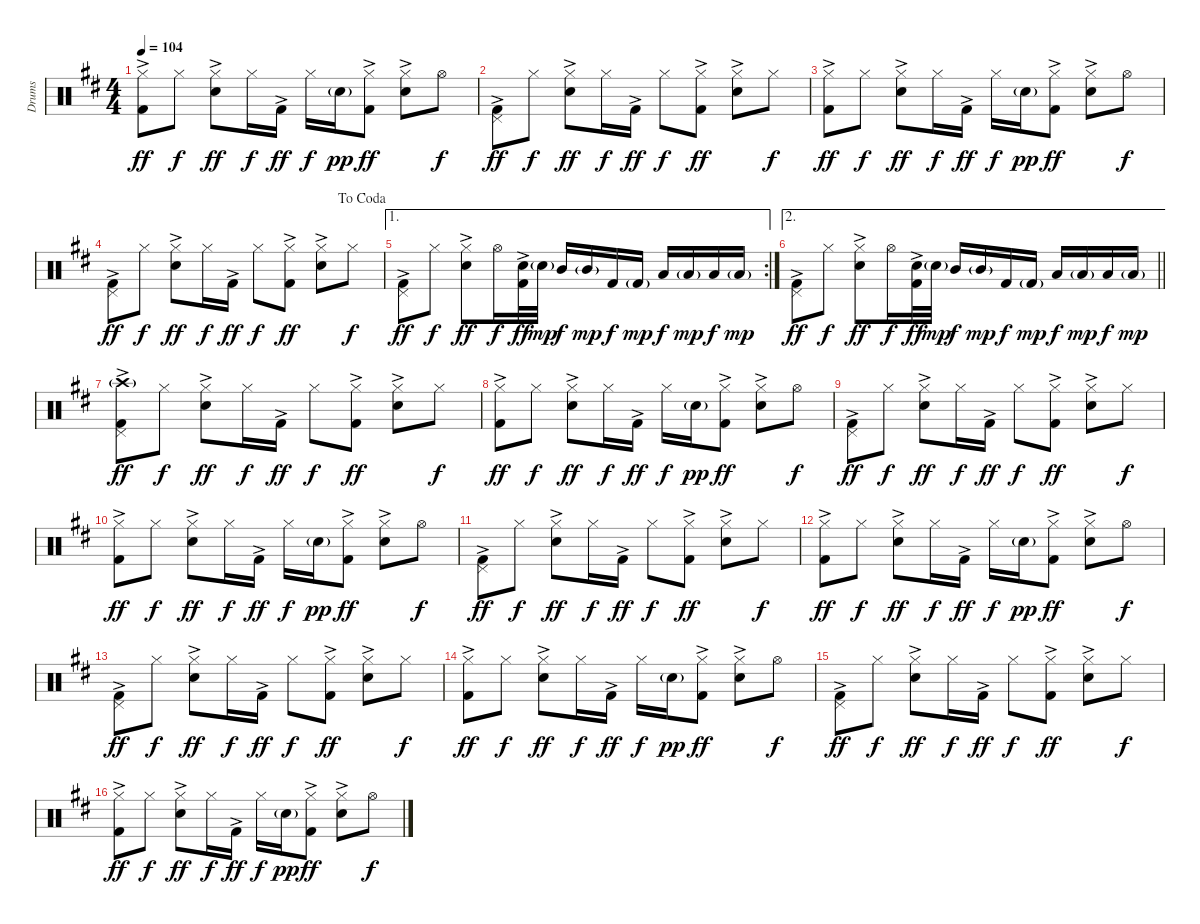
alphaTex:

\track ("Drums" "Drums") {instrument percussion}
\staff {score}
\articulation defaults
\ts (4 4)
\tempo 104
\clef neutral
\ks d
("Hi-Hat (closed)" "Kick (hit) 2"{ac}).8{dy ff} "Hi-Hat (closed)".8{dy f} ("Hi-Hat (closed)" "Snare (hit) 2"{ac}).8{dy ff} "Hi-Hat (closed)".16{dy f} "Kick (hit) 2"{ac}.16{dy ff} "Hi-Hat (closed)".16{dy f} "Snare (hit) 2"{g}.16{dy pp} ("Hi-Hat (closed)" "Kick (hit) 2"{ac}).8{dy ff} ("Hi-Hat (closed)" "Snare (hit) 2"{ac}).8 "Hi-Hat (open)".8{dy f} |
("Pedal Hi-Hat (hit)" "Kick (hit) 2"{ac}).8{dy ff} "Hi-Hat (closed)".8{dy f} ("Hi-Hat (closed)" "Snare (hit) 2"{ac}).8{dy ff} "Hi-Hat (closed)".16{dy f} "Kick (hit) 2"{ac}.16{dy ff} "Hi-Hat (closed)".8{dy f} ("Hi-Hat (closed)" "Kick (hit) 2"{ac}).8{dy ff} ("Hi-Hat (closed)" "Snare (hit) 2"{ac}).8 "Hi-Hat (closed)".8{dy f} |
("Hi-Hat (closed)" "Kick (hit) 2"{ac}).8{dy ff} "Hi-Hat (closed)".8{dy f} ("Hi-Hat (closed)" "Snare (hit) 2"{ac}).8{dy ff} "Hi-Hat (closed)".16{dy f} "Kick (hit) 2"{ac}.16{dy ff} "Hi-Hat (closed)".16{dy f} "Snare (hit) 2"{g}.16{dy pp} ("Hi-Hat (closed)" "Kick (hit) 2"{ac}).8{dy ff} ("Hi-Hat (closed)" "Snare (hit) 2"{ac}).8 "Hi-Hat (open)".8{dy f} |
\jump dacoda
("Pedal Hi-Hat (hit)" "Kick (hit) 2"{ac}).8{dy ff} "Hi-Hat (closed)".8{dy f} ("Hi-Hat (closed)" "Snare (hit) 2"{ac}).8{dy ff} "Hi-Hat (closed)".16{dy f} "Kick (hit) 2"{ac}.16{dy ff} "Hi-Hat (closed)".8{dy f} ("Hi-Hat (closed)" "Kick (hit) 2"{ac}).8{dy ff} ("Hi-Hat (closed)" "Snare (hit) 2"{ac}).8 "Hi-Hat (closed)".8{dy f} |
\ae 1
\rc 2
("Pedal Hi-Hat (hit)" "Kick (hit) 2"{ac}).8{dy ff} "Hi-Hat (closed)".8{dy f} ("Hi-Hat (closed)" "Snare (hit) 2"{ac}).8{dy ff} "Hi-Hat (open)".16{dy f} ("Snare (hit) 2" "Kick (hit) 2"{ac}).32{dy ff} "Snare (hit) 2"{g}.32{dy mp} "Mid Tom (hit)".16{dy f} "Mid Tom (hit)"{g}.16{dy mp} "Kick (hit) 2".16{dy f} "Kick (hit) 2"{g}.16{dy mp} "Low Tom (hit)".16{dy f} "Low Tom (hit)"{g}.16{dy mp} "Low Floor Tom (hit)".16{dy f} "Low Floor Tom (hit)"{g}.16{dy mp} |
\ae 2
\barLineRight lightlight
("Pedal Hi-Hat (hit)" "Kick (hit) 2"{ac}).8{dy ff} "Hi-Hat (closed)".8{dy f} ("Hi-Hat (closed)" "Snare (hit) 2"{ac}).8{dy ff} "Hi-Hat (open)".16{dy f} ("Snare (hit) 2" "Kick (hit) 2"{ac}).32{dy ff} "Snare (hit) 2"{g}.32{dy mp} "Mid Tom (hit)".16{dy f} "Mid Tom (hit)"{g}.16{dy mp} "Kick (hit) 2".16{dy f} "Kick (hit) 2"{g}.16{dy mp} "Low Tom (hit)".16{dy f} "Low Tom (hit)"{g}.16{dy mp} "Low Floor Tom (hit)".16{dy f} "Low Floor Tom (hit)"{g}.16{dy mp} |
("Pedal Hi-Hat (hit)" "Crash high (hit)"{g} "Kick (hit) 2"{ac}).8{dy ff} "Hi-Hat (closed)".8{dy f} ("Hi-Hat (closed)" "Snare (hit) 2"{ac}).8{dy ff} "Hi-Hat (closed)".16{dy f} "Kick (hit) 2"{ac}.16{dy ff} "Hi-Hat (closed)".8{dy f} ("Hi-Hat (closed)" "Kick (hit) 2"{ac}).8{dy ff} ("Hi-Hat (closed)" "Snare (hit) 2"{ac}).8 "Hi-Hat (closed)".8{dy f} |
("Hi-Hat (closed)" "Kick (hit) 2"{ac}).8{dy ff} "Hi-Hat (closed)".8{dy f} ("Hi-Hat (closed)" "Snare (hit) 2"{ac}).8{dy ff} "Hi-Hat (closed)".16{dy f} "Kick (hit) 2"{ac}.16{dy ff} "Hi-Hat (closed)".16{dy f} "Snare (hit) 2"{g}.16{dy pp} ("Hi-Hat (closed)" "Kick (hit) 2"{ac}).8{dy ff} ("Hi-Hat (closed)" "Snare (hit) 2"{ac}).8 "Hi-Hat (open)".8{dy f} |
("Pedal Hi-Hat (hit)" "Kick (hit) 2"{ac}).8{dy ff} "Hi-Hat (closed)".8{dy f} ("Hi-Hat (closed)" "Snare (hit) 2"{ac}).8{dy ff} "Hi-Hat (closed)".16{dy f} "Kick (hit) 2"{ac}.16{dy ff} "Hi-Hat (closed)".8{dy f} ("Hi-Hat (closed)" "Kick (hit) 2"{ac}).8{dy ff} ("Hi-Hat (closed)" "Snare (hit) 2"{ac}).8 "Hi-Hat (closed)".8{dy f} |
("Hi-Hat (closed)" "Kick (hit) 2"{ac}).8{dy ff} "Hi-Hat (closed)".8{dy f} ("Hi-Hat (closed)" "Snare (hit) 2"{ac}).8{dy ff} "Hi-Hat (closed)".16{dy f} "Kick (hit) 2"{ac}.16{dy ff} "Hi-Hat (closed)".16{dy f} "Snare (hit) 2"{g}.16{dy pp} ("Hi-Hat (closed)" "Kick (hit) 2"{ac}).8{dy ff} ("Hi-Hat (closed)" "Snare (hit) 2"{ac}).8 "Hi-Hat (open)".8{dy f} |
("Pedal Hi-Hat (hit)" "Kick (hit) 2"{ac}).8{dy ff} "Hi-Hat (closed)".8{dy f} ("Hi-Hat (closed)" "Snare (hit) 2"{ac}).8{dy ff} "Hi-Hat (closed)".16{dy f} "Kick (hit) 2"{ac}.16{dy ff} "Hi-Hat (closed)".8{dy f} ("Hi-Hat (closed)" "Kick (hit) 2"{ac}).8{dy ff} ("Hi-Hat (closed)" "Snare (hit) 2"{ac}).8 "Hi-Hat (closed)".8{dy f} |
("Hi-Hat (closed)" "Kick (hit) 2"{ac}).8{dy ff} "Hi-Hat (closed)".8{dy f} ("Hi-Hat (closed)" "Snare (hit) 2"{ac}).8{dy ff} "Hi-Hat (closed)".16{dy f} "Kick (hit) 2"{ac}.16{dy ff} "Hi-Hat (closed)".16{dy f} "Snare (hit) 2"{g}.16{dy pp} ("Hi-Hat (closed)" "Kick (hit) 2"{ac}).8{dy ff} ("Hi-Hat (closed)" "Snare (hit) 2"{ac}).8 "Hi-Hat (open)".8{dy f} |
("Pedal Hi-Hat (hit)" "Kick (hit) 2"{ac}).8{dy ff} "Hi-Hat (closed)".8{dy f} ("Hi-Hat (closed)" "Snare (hit) 2"{ac}).8{dy ff} "Hi-Hat (closed)".16{dy f} "Kick (hit) 2"{ac}.16{dy ff} "Hi-Hat (closed)".8{dy f} ("Hi-Hat (closed)" "Kick (hit) 2"{ac}).8{dy ff} ("Hi-Hat (closed)" "Snare (hit) 2"{ac}).8 "Hi-Hat (closed)".8{dy f} |
("Hi-Hat (closed)" "Kick (hit) 2"{ac}).8{dy ff} "Hi-Hat (closed)".8{dy f} ("Hi-Hat (closed)" "Snare (hit) 2"{ac}).8{dy ff} "Hi-Hat (closed)".16{dy f} "Kick (hit) 2"{ac}.16{dy ff} "Hi-Hat (closed)".16{dy f} "Snare (hit) 2"{g}.16{dy pp} ("Hi-Hat (closed)" "Kick (hit) 2"{ac}).8{dy ff} ("Hi-Hat (closed)" "Snare (hit) 2"{ac}).8 "Hi-Hat (open)".8{dy f} |
("Pedal Hi-Hat (hit)" "Kick (hit) 2"{ac}).8{dy ff} "Hi-Hat (closed)".8{dy f} ("Hi-Hat (closed)" "Snare (hit) 2"{ac}).8{dy ff} "Hi-Hat (closed)".16{dy f} "Kick (hit) 2"{ac}.16{dy ff} "Hi-Hat (closed)".8{dy f} ("Hi-Hat (closed)" "Kick (hit) 2"{ac}).8{dy ff} ("Hi-Hat (closed)" "Snare (hit) 2"{ac}).8 "Hi-Hat (closed)".8{dy f} |
("Hi-Hat (closed)" "Kick (hit) 2"{ac}).8{dy ff} "Hi-Hat (closed)".8{dy f} ("Hi-Hat (closed)" "Snare (hit) 2"{ac}).8{dy ff} "Hi-Hat (closed)".16{dy f} "Kick (hit) 2"{ac}.16{dy ff} "Hi-Hat (closed)".16{dy f} "Snare (hit) 2"{g}.16{dy pp} ("Hi-Hat (closed)" "Kick (hit) 2"{ac}).8{dy ff} ("Hi-Hat (closed)" "Snare (hit) 2"{ac}).8 "Hi-Hat (open)".8{dy f}
